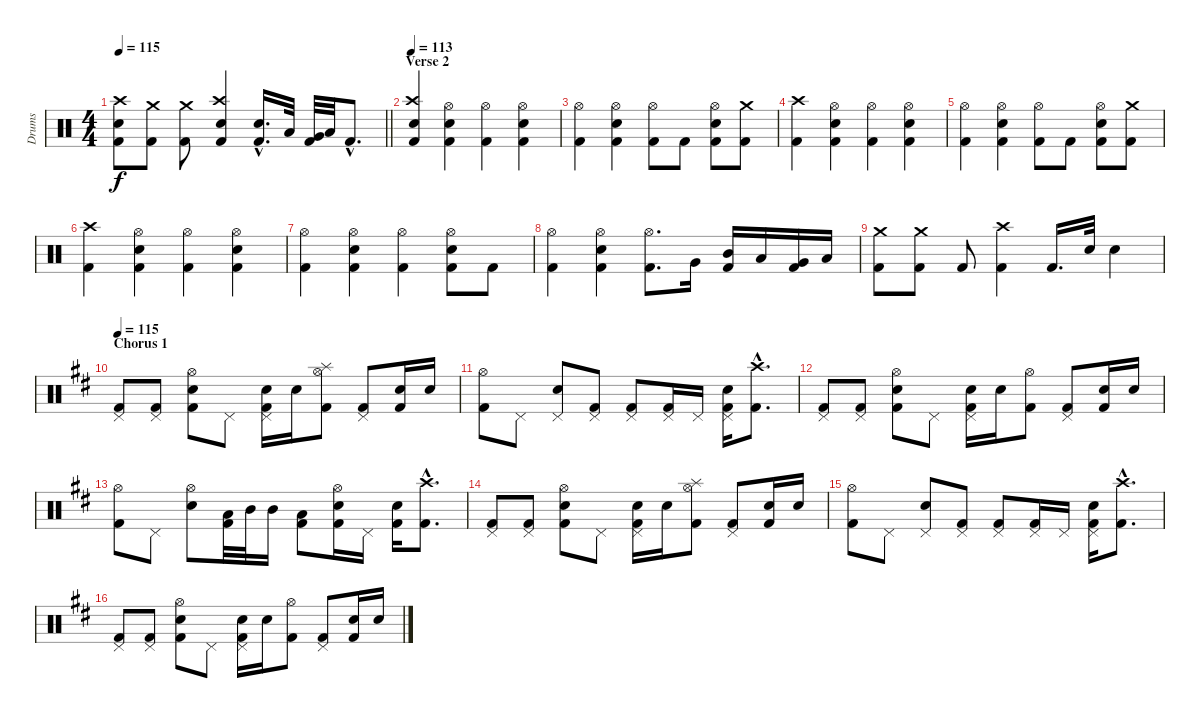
\track ("Drums" "Drums") {instrument percussion}
\staff {score}
\articulation defaults
\ts (4 4)
\tempo 115
\clef neutral
\barLineRight lightlight
\ks c
("Snare (hit) 2" "Crash high (hit)" "Kick (hit) 2").8{dy f} ("Crash medium (hit)" "Kick (hit) 2").8 ("Kick (hit) 2" "Crash medium (hit)").8 ("Snare (hit) 2" "Kick (hit) 2" "Crash high (hit)").4 ("Snare (hit) 2" "Kick (hit) 2"{hac}).16{d} "Low Tom (hit)".32 ("Kick (hit) 2" "Very Low Tom (hit)").32 "Low Floor Tom (hit)".32 "Kick (hit) 2"{hac}.8{d} |
\section ("" "Verse 2")
\tempo 113
("Snare (hit) 2" "Crash high (hit)" "Kick (hit) 2").4 ("Snare (hit) 2" "Hi-Hat (open)" "Kick (hit) 2").4 ("Hi-Hat (open)" "Kick (hit) 2").4 ("Snare (hit) 2" "Hi-Hat (open)" "Kick (hit) 2").4 |
("Hi-Hat (open)" "Kick (hit) 2").4 ("Snare (hit) 2" "Hi-Hat (open)" "Kick (hit) 2").4 ("Hi-Hat (open)" "Kick (hit) 2").8 "Kick (hit) 2".8 ("Snare (hit) 2" "Hi-Hat (open)" "Kick (hit) 2").8 ("Kick (hit) 2" "Crash medium (hit)").8 |
("Crash high (hit)" "Kick (hit) 2").4 ("Snare (hit) 2" "Hi-Hat (open)" "Kick (hit) 2").4 ("Hi-Hat (open)" "Kick (hit) 2").4 ("Snare (hit) 2" "Hi-Hat (open)" "Kick (hit) 2").4 |
("Hi-Hat (open)" "Kick (hit) 2").4 ("Snare (hit) 2" "Hi-Hat (open)" "Kick (hit) 2").4 ("Hi-Hat (open)" "Kick (hit) 2").8 "Kick (hit) 2".8 ("Snare (hit) 2" "Hi-Hat (open)" "Kick (hit) 2").8 ("Kick (hit) 2" "Crash medium (hit)").8 |
("Kick (hit) 2" "Crash high (hit)").4 ("Hi-Hat (open)" "Kick (hit) 2" "Snare (hit) 2").4 ("Hi-Hat (open)" "Kick (hit) 2").4 ("Snare (hit) 2" "Hi-Hat (open)" "Kick (hit) 2").4 |
("Hi-Hat (open)" "Kick (hit) 2").4 ("Snare (hit) 2" "Hi-Hat (open)" "Kick (hit) 2").4 ("Hi-Hat (open)" "Kick (hit) 2").4 ("Snare (hit) 2" "Kick (hit) 2" "Hi-Hat (open)").8 "Kick (hit) 2".8 |
("Hi-Hat (open)" "Kick (hit) 2").4 ("Snare (hit) 2" "Kick (hit) 2" "Hi-Hat (open)").4 ("Kick (hit) 2" "Hi-Hat (open)").8{d} "Very Low Tom (hit)".16 ("Kick (hit) 2" "Mid Tom (hit)").16 "Low Tom (hit)".16 ("Kick (hit) 2" "Very Low Tom (hit)").16 "Low Floor Tom (hit)".16 |
("Kick (hit) 2" "Crash medium (hit)").8 ("Kick (hit) 2" "Crash medium (hit)").8 "Kick (hit) 2".8 ("Kick (hit) 2" "Crash high (hit)").4 "Kick (hit) 2".16{d} "Snare (hit) 2".32 "Snare (hit) 2".4 |
\section ("" "Chorus 1")
\tempo 115
\ks d
("Pedal Hi-Hat (hit)" "Kick (hit) 2").8 ("Kick (hit) 2" "Pedal Hi-Hat (hit)").8 ("Snare (hit) 2" "Hi-Hat (open)" "Kick (hit) 2").8 "Pedal Hi-Hat (hit)".8 ("Kick (hit) 2" "Snare (hit) 2" "Pedal Hi-Hat (hit)").16 "Snare (hit) 2".16 ("Kick (hit) 2" "Splash (hit)" "Hi-Hat (open)").8 ("Kick (hit) 2" "Pedal Hi-Hat (hit)").8 ("Kick (hit) 2" "Snare (hit) 2").16 "Snare (hit) 2".16 |
("Hi-Hat (open)" "Kick (hit) 2").8 "Pedal Hi-Hat (hit)".8 ("Snare (hit) 2" "Pedal Hi-Hat (hit)").8 ("Kick (hit) 2" "Pedal Hi-Hat (hit)").8 ("Kick (hit) 2" "Pedal Hi-Hat (hit)").8 ("Pedal Hi-Hat (hit)" "Kick (hit) 2").16 "Pedal Hi-Hat (hit)".16 ("Pedal Hi-Hat (hit)" "Kick (hit) 2" "Snare (hit) 2").16 ("Kick (hit) 2"{hac} "Crash high (hit)").8{d} |
("Pedal Hi-Hat (hit)" "Kick (hit) 2").8 ("Kick (hit) 2" "Pedal Hi-Hat (hit)").8 ("Snare (hit) 2" "Hi-Hat (open)" "Kick (hit) 2").8 "Pedal Hi-Hat (hit)".8 ("Kick (hit) 2" "Snare (hit) 2" "Pedal Hi-Hat (hit)").16 "Snare (hit) 2".16 ("Kick (hit) 2" "Hi-Hat (open)").8 ("Kick (hit) 2" "Pedal Hi-Hat (hit)").8 ("Kick (hit) 2" "Snare (hit) 2").16 "Snare (hit) 2".16 |
("Hi-Hat (open)" "Kick (hit) 2").8 "Pedal Hi-Hat (hit)".8 ("Snare (hit) 2" "Hi-Hat (open)").8 ("Kick (hit) 2" "Low Tom (hit)").32 "Mid Tom (hit)".32 "Mid Tom (hit)".16 ("Kick (hit) 2" "Low Floor Tom (hit)").8 ("Snare (hit) 2" "Hi-Hat (open)" "Kick (hit) 2").16 "Pedal Hi-Hat (hit)".16 ("Kick (hit) 2" "Snare (hit) 2").16 ("Kick (hit) 2"{hac} "Crash high (hit)").8{d} |
("Pedal Hi-Hat (hit)" "Kick (hit) 2").8 ("Kick (hit) 2" "Pedal Hi-Hat (hit)").8 ("Snare (hit) 2" "Hi-Hat (open)" "Kick (hit) 2").8 "Pedal Hi-Hat (hit)".8 ("Kick (hit) 2" "Snare (hit) 2" "Pedal Hi-Hat (hit)").16 "Snare (hit) 2".16 ("Kick (hit) 2" "Splash (hit)" "Hi-Hat (open)").8 ("Kick (hit) 2" "Pedal Hi-Hat (hit)").8 ("Kick (hit) 2" "Snare (hit) 2").16 "Snare (hit) 2".16 |
("Hi-Hat (open)" "Kick (hit) 2").8 "Pedal Hi-Hat (hit)".8 ("Snare (hit) 2" "Pedal Hi-Hat (hit)").8 ("Kick (hit) 2" "Pedal Hi-Hat (hit)").8 ("Kick (hit) 2" "Pedal Hi-Hat (hit)").8 ("Pedal Hi-Hat (hit)" "Kick (hit) 2").16 "Pedal Hi-Hat (hit)".16 ("Pedal Hi-Hat (hit)" "Kick (hit) 2" "Snare (hit) 2").16 ("Kick (hit) 2"{hac} "Crash high (hit)").8{d} |
("Pedal Hi-Hat (hit)" "Kick (hit) 2").8 ("Kick (hit) 2" "Pedal Hi-Hat (hit)").8 ("Snare (hit) 2" "Hi-Hat (open)" "Kick (hit) 2").8 "Pedal Hi-Hat (hit)".8 ("Kick (hit) 2" "Snare (hit) 2" "Pedal Hi-Hat (hit)").16 "Snare (hit) 2".16 ("Kick (hit) 2" "Hi-Hat (open)").8 ("Kick (hit) 2" "Pedal Hi-Hat (hit)").8 ("Kick (hit) 2" "Snare (hit) 2").16 "Snare (hit) 2".16
